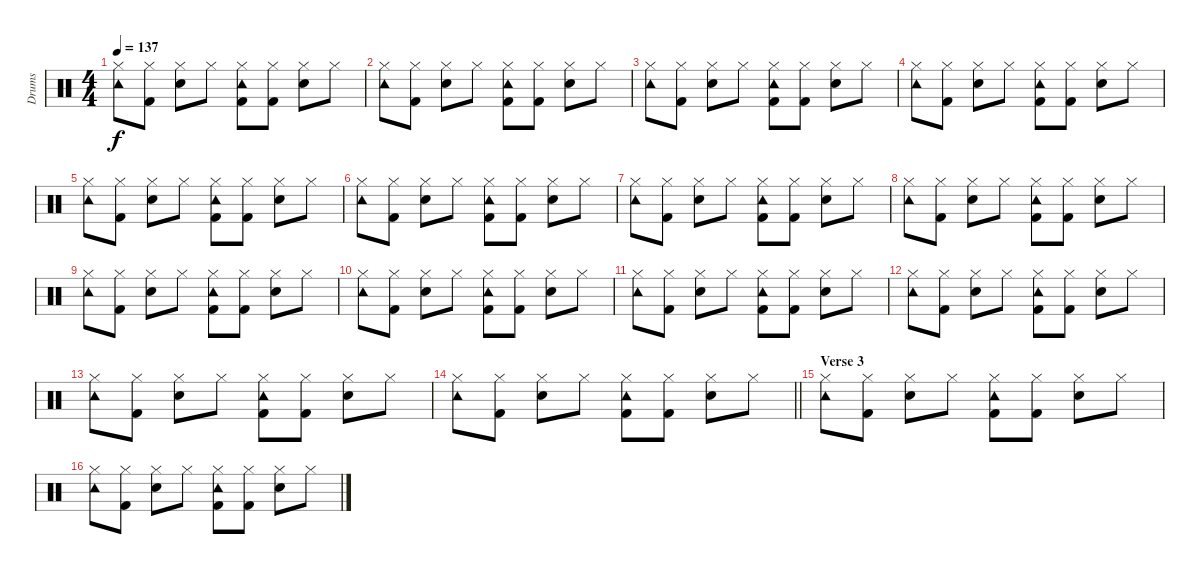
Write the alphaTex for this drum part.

\track ("Drums" "Drums") {instrument percussion}
\staff {score}
\articulation defaults
\ts (4 4)
\tempo 137
\clef neutral
\ks c
("Hi-Hat (closed)" "Tambourine (hit)").8{dy f} ("Hi-Hat (closed)" "Kick (hit) 2").8 ("Hi-Hat (closed)" "Snare (hit) 2").8 "Hi-Hat (closed)".8 ("Hi-Hat (closed)" "Tambourine (hit)" "Kick (hit) 2").8 ("Hi-Hat (closed)" "Kick (hit) 2").8 ("Hi-Hat (closed)" "Snare (hit) 2").8 "Hi-Hat (closed)".8 |
("Hi-Hat (closed)" "Tambourine (hit)").8 ("Hi-Hat (closed)" "Kick (hit) 2").8 ("Hi-Hat (closed)" "Snare (hit) 2").8 "Hi-Hat (closed)".8 ("Hi-Hat (closed)" "Tambourine (hit)" "Kick (hit) 2").8 ("Hi-Hat (closed)" "Kick (hit) 2").8 ("Hi-Hat (closed)" "Snare (hit) 2").8 "Hi-Hat (closed)".8 |
("Hi-Hat (closed)" "Tambourine (hit)").8 ("Hi-Hat (closed)" "Kick (hit) 2").8 ("Hi-Hat (closed)" "Snare (hit) 2").8 "Hi-Hat (closed)".8 ("Hi-Hat (closed)" "Tambourine (hit)" "Kick (hit) 2").8 ("Hi-Hat (closed)" "Kick (hit) 2").8 ("Hi-Hat (closed)" "Snare (hit) 2").8 "Hi-Hat (closed)".8 |
("Hi-Hat (closed)" "Tambourine (hit)").8 ("Hi-Hat (closed)" "Kick (hit) 2").8 ("Hi-Hat (closed)" "Snare (hit) 2").8 "Hi-Hat (closed)".8 ("Hi-Hat (closed)" "Tambourine (hit)" "Kick (hit) 2").8 ("Hi-Hat (closed)" "Kick (hit) 2").8 ("Hi-Hat (closed)" "Snare (hit) 2").8 "Hi-Hat (closed)".8 |
("Hi-Hat (closed)" "Tambourine (hit)").8 ("Hi-Hat (closed)" "Kick (hit) 2").8 ("Hi-Hat (closed)" "Snare (hit) 2").8 "Hi-Hat (closed)".8 ("Hi-Hat (closed)" "Tambourine (hit)" "Kick (hit) 2").8 ("Hi-Hat (closed)" "Kick (hit) 2").8 ("Hi-Hat (closed)" "Snare (hit) 2").8 "Hi-Hat (closed)".8 |
("Hi-Hat (closed)" "Tambourine (hit)").8 ("Hi-Hat (closed)" "Kick (hit) 2").8 ("Hi-Hat (closed)" "Snare (hit) 2").8 "Hi-Hat (closed)".8 ("Hi-Hat (closed)" "Tambourine (hit)" "Kick (hit) 2").8 ("Hi-Hat (closed)" "Kick (hit) 2").8 ("Hi-Hat (closed)" "Snare (hit) 2").8 "Hi-Hat (closed)".8 |
("Hi-Hat (closed)" "Tambourine (hit)").8 ("Hi-Hat (closed)" "Kick (hit) 2").8 ("Hi-Hat (closed)" "Snare (hit) 2").8 "Hi-Hat (closed)".8 ("Hi-Hat (closed)" "Tambourine (hit)" "Kick (hit) 2").8 ("Hi-Hat (closed)" "Kick (hit) 2").8 ("Hi-Hat (closed)" "Snare (hit) 2").8 "Hi-Hat (closed)".8 |
("Hi-Hat (closed)" "Tambourine (hit)").8 ("Hi-Hat (closed)" "Kick (hit) 2").8 ("Hi-Hat (closed)" "Snare (hit) 2").8 "Hi-Hat (closed)".8 ("Hi-Hat (closed)" "Tambourine (hit)" "Kick (hit) 2").8 ("Hi-Hat (closed)" "Kick (hit) 2").8 ("Hi-Hat (closed)" "Snare (hit) 2").8 "Hi-Hat (closed)".8 |
("Hi-Hat (closed)" "Tambourine (hit)").8 ("Hi-Hat (closed)" "Kick (hit) 2").8 ("Hi-Hat (closed)" "Snare (hit) 2").8 "Hi-Hat (closed)".8 ("Hi-Hat (closed)" "Tambourine (hit)" "Kick (hit) 2").8 ("Hi-Hat (closed)" "Kick (hit) 2").8 ("Hi-Hat (closed)" "Snare (hit) 2").8 "Hi-Hat (closed)".8 |
("Hi-Hat (closed)" "Tambourine (hit)").8 ("Hi-Hat (closed)" "Kick (hit) 2").8 ("Hi-Hat (closed)" "Snare (hit) 2").8 "Hi-Hat (closed)".8 ("Hi-Hat (closed)" "Tambourine (hit)" "Kick (hit) 2").8 ("Hi-Hat (closed)" "Kick (hit) 2").8 ("Hi-Hat (closed)" "Snare (hit) 2").8 "Hi-Hat (closed)".8 |
("Hi-Hat (closed)" "Tambourine (hit)").8 ("Hi-Hat (closed)" "Kick (hit) 2").8 ("Hi-Hat (closed)" "Snare (hit) 2").8 "Hi-Hat (closed)".8 ("Hi-Hat (closed)" "Tambourine (hit)" "Kick (hit) 2").8 ("Hi-Hat (closed)" "Kick (hit) 2").8 ("Hi-Hat (closed)" "Snare (hit) 2").8 "Hi-Hat (closed)".8 |
("Hi-Hat (closed)" "Tambourine (hit)").8 ("Hi-Hat (closed)" "Kick (hit) 2").8 ("Hi-Hat (closed)" "Snare (hit) 2").8 "Hi-Hat (closed)".8 ("Hi-Hat (closed)" "Tambourine (hit)" "Kick (hit) 2").8 ("Hi-Hat (closed)" "Kick (hit) 2").8 ("Hi-Hat (closed)" "Snare (hit) 2").8 "Hi-Hat (closed)".8 |
("Hi-Hat (closed)" "Tambourine (hit)").8 ("Hi-Hat (closed)" "Kick (hit) 2").8 ("Hi-Hat (closed)" "Snare (hit) 2").8 "Hi-Hat (closed)".8 ("Hi-Hat (closed)" "Tambourine (hit)" "Kick (hit) 2").8 ("Hi-Hat (closed)" "Kick (hit) 2").8 ("Hi-Hat (closed)" "Snare (hit) 2").8 "Hi-Hat (closed)".8 |
\barLineRight lightlight
("Hi-Hat (closed)" "Tambourine (hit)").8 ("Hi-Hat (closed)" "Kick (hit) 2").8 ("Hi-Hat (closed)" "Snare (hit) 2").8 "Hi-Hat (closed)".8 ("Hi-Hat (closed)" "Tambourine (hit)" "Kick (hit) 2").8 ("Hi-Hat (closed)" "Kick (hit) 2").8 ("Hi-Hat (closed)" "Snare (hit) 2").8 "Hi-Hat (closed)".8 |
\section ("" "Verse 3")
("Hi-Hat (closed)" "Tambourine (hit)").8 ("Hi-Hat (closed)" "Kick (hit) 2").8 ("Hi-Hat (closed)" "Snare (hit) 2").8 "Hi-Hat (closed)".8 ("Hi-Hat (closed)" "Tambourine (hit)" "Kick (hit) 2").8 ("Hi-Hat (closed)" "Kick (hit) 2").8 ("Hi-Hat (closed)" "Snare (hit) 2").8 "Hi-Hat (closed)".8 |
("Hi-Hat (closed)" "Tambourine (hit)").8 ("Hi-Hat (closed)" "Kick (hit) 2").8 ("Hi-Hat (closed)" "Snare (hit) 2").8 "Hi-Hat (closed)".8 ("Hi-Hat (closed)" "Tambourine (hit)" "Kick (hit) 2").8 ("Hi-Hat (closed)" "Kick (hit) 2").8 ("Hi-Hat (closed)" "Snare (hit) 2").8 "Hi-Hat (closed)".8
